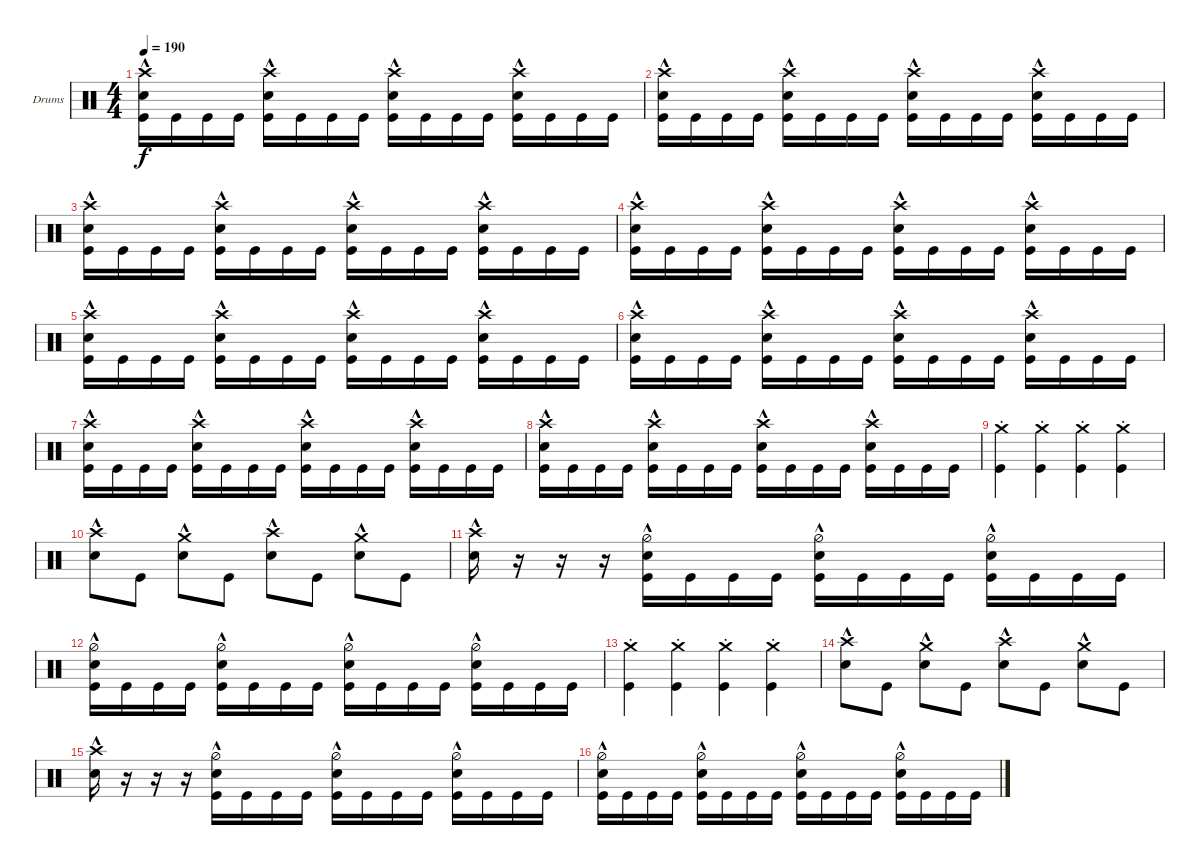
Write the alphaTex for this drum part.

\bracketExtendMode groupsimilarinstruments
\firstSystemTrackNameOrientation horizontal
\otherSystemsTrackNameOrientation horizontal
\track ("Drumkit" "Drums") {instrument percussion}
\staff {score}
\articulation defaults
\ts (4 4)
\tempo 190
\clef neutral
\scale
0.333333
\ks c
("Kick (hit)" "Snare (hit) 2"{hac} "Crash high (hit)").16{dy f} "Kick (hit)".16 "Kick (hit)".16 "Kick (hit)".16 ("Kick (hit)" "Snare (hit) 2"{hac} "Crash high (hit)").16 "Kick (hit)".16 "Kick (hit)".16 "Kick (hit)".16 ("Kick (hit)" "Snare (hit) 2"{hac} "Crash high (hit)").16 "Kick (hit)".16 "Kick (hit)".16 "Kick (hit)".16 ("Kick (hit)" "Snare (hit) 2"{hac} "Crash high (hit)").16 "Kick (hit)".16 "Kick (hit)".16 "Kick (hit)".16 |
\scale
0.333333 ("Kick (hit)" "Snare (hit) 2"{hac} "Crash high (hit)").16 "Kick (hit)".16 "Kick (hit)".16 "Kick (hit)".16 ("Kick (hit)" "Snare (hit) 2"{hac} "Crash high (hit)").16 "Kick (hit)".16 "Kick (hit)".16 "Kick (hit)".16 ("Kick (hit)" "Snare (hit) 2"{hac} "Crash high (hit)").16 "Kick (hit)".16 "Kick (hit)".16 "Kick (hit)".16 ("Kick (hit)" "Snare (hit) 2"{hac} "Crash high (hit)").16 "Kick (hit)".16 "Kick (hit)".16 "Kick (hit)".16 |
\scale
0.333333 ("Kick (hit)" "Snare (hit) 2"{hac} "Crash high (hit)").16 "Kick (hit)".16 "Kick (hit)".16 "Kick (hit)".16 ("Kick (hit)" "Snare (hit) 2"{hac} "Crash high (hit)").16 "Kick (hit)".16 "Kick (hit)".16 "Kick (hit)".16 ("Kick (hit)" "Snare (hit) 2"{hac} "Crash high (hit)").16 "Kick (hit)".16 "Kick (hit)".16 "Kick (hit)".16 ("Kick (hit)" "Snare (hit) 2"{hac} "Crash high (hit)").16 "Kick (hit)".16 "Kick (hit)".16 "Kick (hit)".16 |
\scale
0.333333 ("Kick (hit)" "Snare (hit) 2"{hac} "Crash high (hit)").16 "Kick (hit)".16 "Kick (hit)".16 "Kick (hit)".16 ("Kick (hit)" "Snare (hit) 2"{hac} "Crash high (hit)").16 "Kick (hit)".16 "Kick (hit)".16 "Kick (hit)".16 ("Kick (hit)" "Snare (hit) 2"{hac} "Crash high (hit)").16 "Kick (hit)".16 "Kick (hit)".16 "Kick (hit)".16 ("Kick (hit)" "Snare (hit) 2"{hac} "Crash high (hit)").16 "Kick (hit)".16 "Kick (hit)".16 "Kick (hit)".16 |
\scale
0.333333 ("Kick (hit)" "Snare (hit) 2"{hac} "Crash high (hit)").16 "Kick (hit)".16 "Kick (hit)".16 "Kick (hit)".16 ("Kick (hit)" "Snare (hit) 2"{hac} "Crash high (hit)").16 "Kick (hit)".16 "Kick (hit)".16 "Kick (hit)".16 ("Kick (hit)" "Snare (hit) 2"{hac} "Crash high (hit)").16 "Kick (hit)".16 "Kick (hit)".16 "Kick (hit)".16 ("Kick (hit)" "Snare (hit) 2"{hac} "Crash high (hit)").16 "Kick (hit)".16 "Kick (hit)".16 "Kick (hit)".16 |
\scale
0.333333 ("Kick (hit)" "Snare (hit) 2"{hac} "Crash high (hit)").16 "Kick (hit)".16 "Kick (hit)".16 "Kick (hit)".16 ("Kick (hit)" "Snare (hit) 2"{hac} "Crash high (hit)").16 "Kick (hit)".16 "Kick (hit)".16 "Kick (hit)".16 ("Kick (hit)" "Snare (hit) 2"{hac} "Crash high (hit)").16 "Kick (hit)".16 "Kick (hit)".16 "Kick (hit)".16 ("Kick (hit)" "Snare (hit) 2"{hac} "Crash high (hit)").16 "Kick (hit)".16 "Kick (hit)".16 "Kick (hit)".16 |
\scale
0.333333 ("Kick (hit)" "Snare (hit) 2"{hac} "Crash high (hit)").16 "Kick (hit)".16 "Kick (hit)".16 "Kick (hit)".16 ("Kick (hit)" "Snare (hit) 2"{hac} "Crash high (hit)").16 "Kick (hit)".16 "Kick (hit)".16 "Kick (hit)".16 ("Kick (hit)" "Snare (hit) 2"{hac} "Crash high (hit)").16 "Kick (hit)".16 "Kick (hit)".16 "Kick (hit)".16 ("Kick (hit)" "Snare (hit) 2"{hac} "Crash high (hit)").16 "Kick (hit)".16 "Kick (hit)".16 "Kick (hit)".16 |
\scale
0.333333 ("Kick (hit)" "Snare (hit) 2"{hac} "Crash high (hit)").16 "Kick (hit)".16 "Kick (hit)".16 "Kick (hit)".16 ("Kick (hit)" "Snare (hit) 2"{hac} "Crash high (hit)").16 "Kick (hit)".16 "Kick (hit)".16 "Kick (hit)".16 ("Kick (hit)" "Snare (hit) 2"{hac} "Crash high (hit)").16 "Kick (hit)".16 "Kick (hit)".16 "Kick (hit)".16 ("Kick (hit)" "Snare (hit) 2"{hac} "Crash high (hit)").16 "Kick (hit)".16 "Kick (hit)".16 "Kick (hit)".16 |
\scale
0.333333 ("Kick (hit)" "Crash medium (hit)"{st}).4 ("Kick (hit)" "Crash medium (hit)"{st}).4 ("Kick (hit)" "Crash medium (hit)"{st}).4 ("Kick (hit)" "Crash medium (hit)"{st}).4 |
\scale
0.333333 ("Snare (hit) 2"{hac} "Crash high (hit)").8 "Kick (hit)".8 ("Snare (hit) 2"{hac} "Crash medium (hit)").8 "Kick (hit)".8 ("Snare (hit) 2"{hac} "Crash high (hit)").8 "Kick (hit)".8 ("Snare (hit) 2"{hac} "Crash medium (hit)").8 "Kick (hit)".8 |
\scale
0.333333 ("Snare (hit) 2"{hac} "Crash high (hit)").16 r.16 r.16 r.16 ("Kick (hit)" "Snare (hit) 2"{hac} "Hi-Hat (half)").16 "Kick (hit)".16 "Kick (hit)".16 "Kick (hit)".16 ("Kick (hit)" "Snare (hit) 2"{hac} "Hi-Hat (half)").16 "Kick (hit)".16 "Kick (hit)".16 "Kick (hit)".16 ("Kick (hit)" "Snare (hit) 2"{hac} "Hi-Hat (half)").16 "Kick (hit)".16 "Kick (hit)".16 "Kick (hit)".16 |
\scale
0.333333 ("Kick (hit)" "Snare (hit) 2"{hac} "Hi-Hat (half)").16 "Kick (hit)".16 "Kick (hit)".16 "Kick (hit)".16 ("Kick (hit)" "Snare (hit) 2"{hac} "Hi-Hat (half)").16 "Kick (hit)".16 "Kick (hit)".16 "Kick (hit)".16 ("Kick (hit)" "Snare (hit) 2"{hac} "Hi-Hat (half)").16 "Kick (hit)".16 "Kick (hit)".16 "Kick (hit)".16 ("Kick (hit)" "Snare (hit) 2"{hac} "Hi-Hat (half)").16 "Kick (hit)".16 "Kick (hit)".16 "Kick (hit)".16 |
\scale
0.333333 ("Kick (hit)" "Crash medium (hit)"{st}).4 ("Kick (hit)" "Crash medium (hit)"{st}).4 ("Kick (hit)" "Crash medium (hit)"{st}).4 ("Kick (hit)" "Crash medium (hit)"{st}).4 |
\scale
0.333333 ("Snare (hit) 2"{hac} "Crash high (hit)").8 "Kick (hit)".8 ("Snare (hit) 2"{hac} "Crash medium (hit)").8 "Kick (hit)".8 ("Snare (hit) 2"{hac} "Crash high (hit)").8 "Kick (hit)".8 ("Snare (hit) 2"{hac} "Crash medium (hit)").8 "Kick (hit)".8 |
\scale
0.333333 ("Snare (hit) 2"{hac} "Crash high (hit)").16 r.16 r.16 r.16 ("Kick (hit)" "Snare (hit) 2"{hac} "Hi-Hat (half)").16 "Kick (hit)".16 "Kick (hit)".16 "Kick (hit)".16 ("Kick (hit)" "Snare (hit) 2"{hac} "Hi-Hat (half)").16 "Kick (hit)".16 "Kick (hit)".16 "Kick (hit)".16 ("Kick (hit)" "Snare (hit) 2"{hac} "Hi-Hat (half)").16 "Kick (hit)".16 "Kick (hit)".16 "Kick (hit)".16 |
\scale
0.333333 ("Kick (hit)" "Snare (hit) 2"{hac} "Hi-Hat (half)").16 "Kick (hit)".16 "Kick (hit)".16 "Kick (hit)".16 ("Kick (hit)" "Snare (hit) 2"{hac} "Hi-Hat (half)").16 "Kick (hit)".16 "Kick (hit)".16 "Kick (hit)".16 ("Kick (hit)" "Snare (hit) 2"{hac} "Hi-Hat (half)").16 "Kick (hit)".16 "Kick (hit)".16 "Kick (hit)".16 ("Kick (hit)" "Snare (hit) 2"{hac} "Hi-Hat (half)").16 "Kick (hit)".16 "Kick (hit)".16 "Kick (hit)".16
